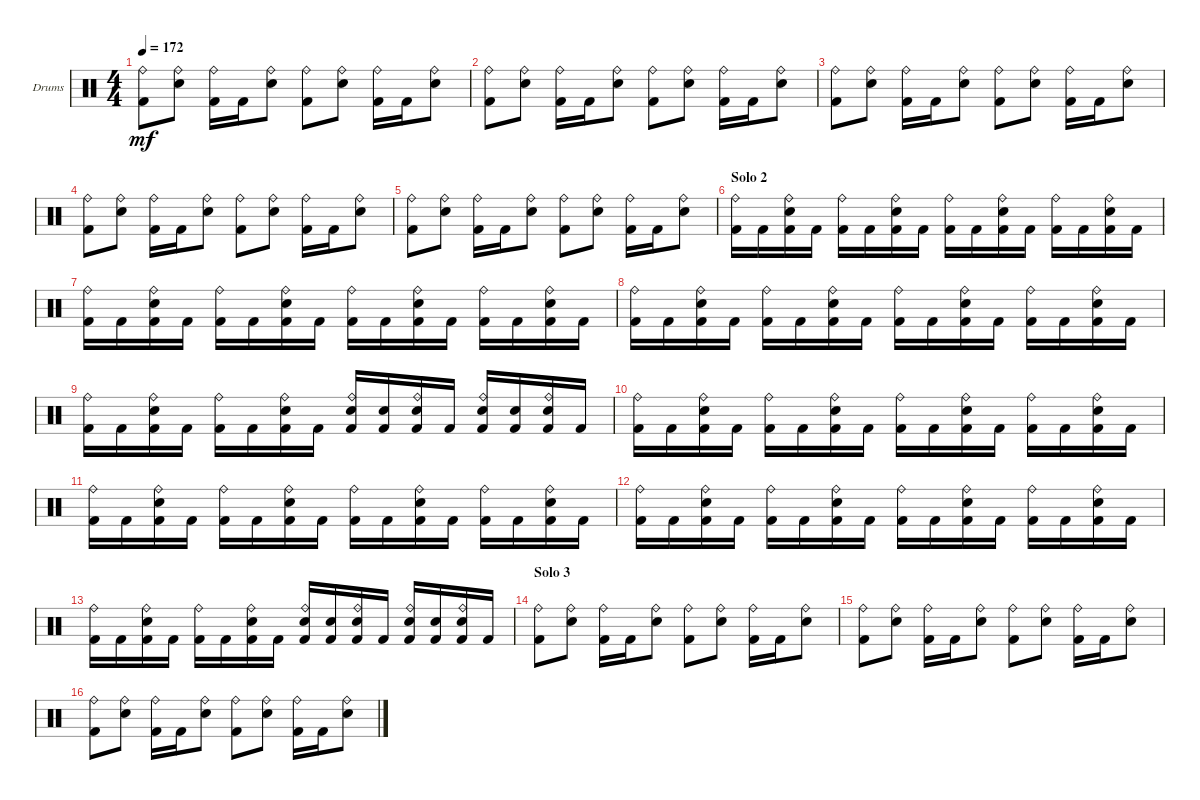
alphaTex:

\bracketExtendMode groupsimilarinstruments
\firstSystemTrackNameOrientation horizontal
\otherSystemsTrackNameOrientation horizontal
\track ("Drumkit" "Drums") {instrument percussion}
\staff {score}
\articulation defaults
\ts (4 4)
\tempo 172
\clef neutral
\ks c
("Kick (hit) 2" "Ride (bell)").8{dy mf} ("Snare (hit) 2" "Ride (bell)").8 ("Kick (hit) 2" "Ride (bell)").16 "Kick (hit) 2".16 ("Snare (hit) 2" "Ride (bell)").8 ("Kick (hit) 2" "Ride (bell)").8 ("Snare (hit) 2" "Ride (bell)").8 ("Kick (hit) 2" "Ride (bell)").16 "Kick (hit) 2".16 ("Snare (hit) 2" "Ride (bell)").8 |
("Kick (hit) 2" "Ride (bell)").8 ("Snare (hit) 2" "Ride (bell)").8 ("Kick (hit) 2" "Ride (bell)").16 "Kick (hit) 2".16 ("Snare (hit) 2" "Ride (bell)").8 ("Kick (hit) 2" "Ride (bell)").8 ("Snare (hit) 2" "Ride (bell)").8 ("Kick (hit) 2" "Ride (bell)").16 "Kick (hit) 2".16 ("Snare (hit) 2" "Ride (bell)").8 |
("Kick (hit) 2" "Ride (bell)").8 ("Snare (hit) 2" "Ride (bell)").8 ("Kick (hit) 2" "Ride (bell)").16 "Kick (hit) 2".16 ("Snare (hit) 2" "Ride (bell)").8 ("Kick (hit) 2" "Ride (bell)").8 ("Snare (hit) 2" "Ride (bell)").8 ("Kick (hit) 2" "Ride (bell)").16 "Kick (hit) 2".16 ("Snare (hit) 2" "Ride (bell)").8 |
("Kick (hit) 2" "Ride (bell)").8 ("Snare (hit) 2" "Ride (bell)").8 ("Kick (hit) 2" "Ride (bell)").16 "Kick (hit) 2".16 ("Snare (hit) 2" "Ride (bell)").8 ("Kick (hit) 2" "Ride (bell)").8 ("Snare (hit) 2" "Ride (bell)").8 ("Kick (hit) 2" "Ride (bell)").16 "Kick (hit) 2".16 ("Snare (hit) 2" "Ride (bell)").8 |
("Kick (hit) 2" "Ride (bell)").8 ("Snare (hit) 2" "Ride (bell)").8 ("Kick (hit) 2" "Ride (bell)").16 "Kick (hit) 2".16 ("Snare (hit) 2" "Ride (bell)").8 ("Kick (hit) 2" "Ride (bell)").8 ("Snare (hit) 2" "Ride (bell)").8 ("Kick (hit) 2" "Ride (bell)").16 "Kick (hit) 2".16 ("Snare (hit) 2" "Ride (bell)").8 |
\section ("" "Solo 2")
("Kick (hit) 2" "Ride (bell)").16 "Kick (hit) 2".16 ("Snare (hit) 2" "Ride (bell)" "Kick (hit) 2").16 "Kick (hit) 2".16 ("Kick (hit) 2" "Ride (bell)").16 "Kick (hit) 2".16 ("Snare (hit) 2" "Ride (bell)" "Kick (hit) 2").16 "Kick (hit) 2".16 ("Kick (hit) 2" "Ride (bell)").16 "Kick (hit) 2".16 ("Snare (hit) 2" "Ride (bell)" "Kick (hit) 2").16 "Kick (hit) 2".16 ("Kick (hit) 2" "Ride (bell)").16 "Kick (hit) 2".16 ("Snare (hit) 2" "Ride (bell)" "Kick (hit) 2").16 "Kick (hit) 2".16 |
("Kick (hit) 2" "Ride (bell)").16 "Kick (hit) 2".16 ("Snare (hit) 2" "Ride (bell)" "Kick (hit) 2").16 "Kick (hit) 2".16 ("Kick (hit) 2" "Ride (bell)").16 "Kick (hit) 2".16 ("Snare (hit) 2" "Ride (bell)" "Kick (hit) 2").16 "Kick (hit) 2".16 ("Kick (hit) 2" "Ride (bell)").16 "Kick (hit) 2".16 ("Snare (hit) 2" "Ride (bell)" "Kick (hit) 2").16 "Kick (hit) 2".16 ("Kick (hit) 2" "Ride (bell)").16 "Kick (hit) 2".16 ("Snare (hit) 2" "Ride (bell)" "Kick (hit) 2").16 "Kick (hit) 2".16 |
("Kick (hit) 2" "Ride (bell)").16 "Kick (hit) 2".16 ("Snare (hit) 2" "Ride (bell)" "Kick (hit) 2").16 "Kick (hit) 2".16 ("Kick (hit) 2" "Ride (bell)").16 "Kick (hit) 2".16 ("Snare (hit) 2" "Ride (bell)" "Kick (hit) 2").16 "Kick (hit) 2".16 ("Kick (hit) 2" "Ride (bell)").16 "Kick (hit) 2".16 ("Snare (hit) 2" "Ride (bell)" "Kick (hit) 2").16 "Kick (hit) 2".16 ("Kick (hit) 2" "Ride (bell)").16 "Kick (hit) 2".16 ("Snare (hit) 2" "Ride (bell)" "Kick (hit) 2").16 "Kick (hit) 2".16 |
("Kick (hit) 2" "Ride (bell)").16 "Kick (hit) 2".16 ("Snare (hit) 2" "Ride (bell)" "Kick (hit) 2").16 "Kick (hit) 2".16 ("Kick (hit) 2" "Ride (bell)").16 "Kick (hit) 2".16 ("Snare (hit) 2" "Ride (bell)" "Kick (hit) 2").16 "Kick (hit) 2".16 ("Kick (hit) 2" "Ride (bell)" "Snare (hit) 2").16 ("Kick (hit) 2" "Snare (hit) 2").16 ("Snare (hit) 2" "Ride (bell)" "Kick (hit) 2").16 "Kick (hit) 2".16 ("Kick (hit) 2" "Ride (bell)" "Snare (hit) 2").16 ("Kick (hit) 2" "Snare (hit) 2").16 ("Snare (hit) 2" "Ride (bell)" "Kick (hit) 2").16 "Kick (hit) 2".16 |
("Kick (hit) 2" "Ride (bell)").16 "Kick (hit) 2".16 ("Snare (hit) 2" "Ride (bell)" "Kick (hit) 2").16 "Kick (hit) 2".16 ("Kick (hit) 2" "Ride (bell)").16 "Kick (hit) 2".16 ("Snare (hit) 2" "Ride (bell)" "Kick (hit) 2").16 "Kick (hit) 2".16 ("Kick (hit) 2" "Ride (bell)").16 "Kick (hit) 2".16 ("Snare (hit) 2" "Ride (bell)" "Kick (hit) 2").16 "Kick (hit) 2".16 ("Kick (hit) 2" "Ride (bell)").16 "Kick (hit) 2".16 ("Snare (hit) 2" "Ride (bell)" "Kick (hit) 2").16 "Kick (hit) 2".16 |
("Kick (hit) 2" "Ride (bell)").16 "Kick (hit) 2".16 ("Snare (hit) 2" "Ride (bell)" "Kick (hit) 2").16 "Kick (hit) 2".16 ("Kick (hit) 2" "Ride (bell)").16 "Kick (hit) 2".16 ("Snare (hit) 2" "Ride (bell)" "Kick (hit) 2").16 "Kick (hit) 2".16 ("Kick (hit) 2" "Ride (bell)").16 "Kick (hit) 2".16 ("Snare (hit) 2" "Ride (bell)" "Kick (hit) 2").16 "Kick (hit) 2".16 ("Kick (hit) 2" "Ride (bell)").16 "Kick (hit) 2".16 ("Snare (hit) 2" "Ride (bell)" "Kick (hit) 2").16 "Kick (hit) 2".16 |
("Kick (hit) 2" "Ride (bell)").16 "Kick (hit) 2".16 ("Snare (hit) 2" "Ride (bell)" "Kick (hit) 2").16 "Kick (hit) 2".16 ("Kick (hit) 2" "Ride (bell)").16 "Kick (hit) 2".16 ("Snare (hit) 2" "Ride (bell)" "Kick (hit) 2").16 "Kick (hit) 2".16 ("Kick (hit) 2" "Ride (bell)").16 "Kick (hit) 2".16 ("Snare (hit) 2" "Ride (bell)" "Kick (hit) 2").16 "Kick (hit) 2".16 ("Kick (hit) 2" "Ride (bell)").16 "Kick (hit) 2".16 ("Snare (hit) 2" "Ride (bell)" "Kick (hit) 2").16 "Kick (hit) 2".16 |
("Kick (hit) 2" "Ride (bell)").16 "Kick (hit) 2".16 ("Snare (hit) 2" "Ride (bell)" "Kick (hit) 2").16 "Kick (hit) 2".16 ("Kick (hit) 2" "Ride (bell)").16 "Kick (hit) 2".16 ("Snare (hit) 2" "Ride (bell)" "Kick (hit) 2").16 "Kick (hit) 2".16 ("Kick (hit) 2" "Ride (bell)" "Snare (hit) 2").16 ("Kick (hit) 2" "Snare (hit) 2").16 ("Snare (hit) 2" "Ride (bell)" "Kick (hit) 2").16 "Kick (hit) 2".16 ("Kick (hit) 2" "Ride (bell)" "Snare (hit) 2").16 ("Kick (hit) 2" "Snare (hit) 2").16 ("Snare (hit) 2" "Ride (bell)" "Kick (hit) 2").16 "Kick (hit) 2".16 |
\section ("" "Solo 3")
("Kick (hit) 2" "Ride (bell)").8 ("Snare (hit) 2" "Ride (bell)").8 ("Kick (hit) 2" "Ride (bell)").16 "Kick (hit) 2".16 ("Snare (hit) 2" "Ride (bell)").8 ("Kick (hit) 2" "Ride (bell)").8 ("Snare (hit) 2" "Ride (bell)").8 ("Kick (hit) 2" "Ride (bell)").16 "Kick (hit) 2".16 ("Snare (hit) 2" "Ride (bell)").8 |
("Kick (hit) 2" "Ride (bell)").8 ("Snare (hit) 2" "Ride (bell)").8 ("Kick (hit) 2" "Ride (bell)").16 "Kick (hit) 2".16 ("Snare (hit) 2" "Ride (bell)").8 ("Kick (hit) 2" "Ride (bell)").8 ("Snare (hit) 2" "Ride (bell)").8 ("Kick (hit) 2" "Ride (bell)").16 "Kick (hit) 2".16 ("Snare (hit) 2" "Ride (bell)").8 |
("Kick (hit) 2" "Ride (bell)").8 ("Snare (hit) 2" "Ride (bell)").8 ("Kick (hit) 2" "Ride (bell)").16 "Kick (hit) 2".16 ("Snare (hit) 2" "Ride (bell)").8 ("Kick (hit) 2" "Ride (bell)").8 ("Snare (hit) 2" "Ride (bell)").8 ("Kick (hit) 2" "Ride (bell)").16 "Kick (hit) 2".16 ("Snare (hit) 2" "Ride (bell)").8
